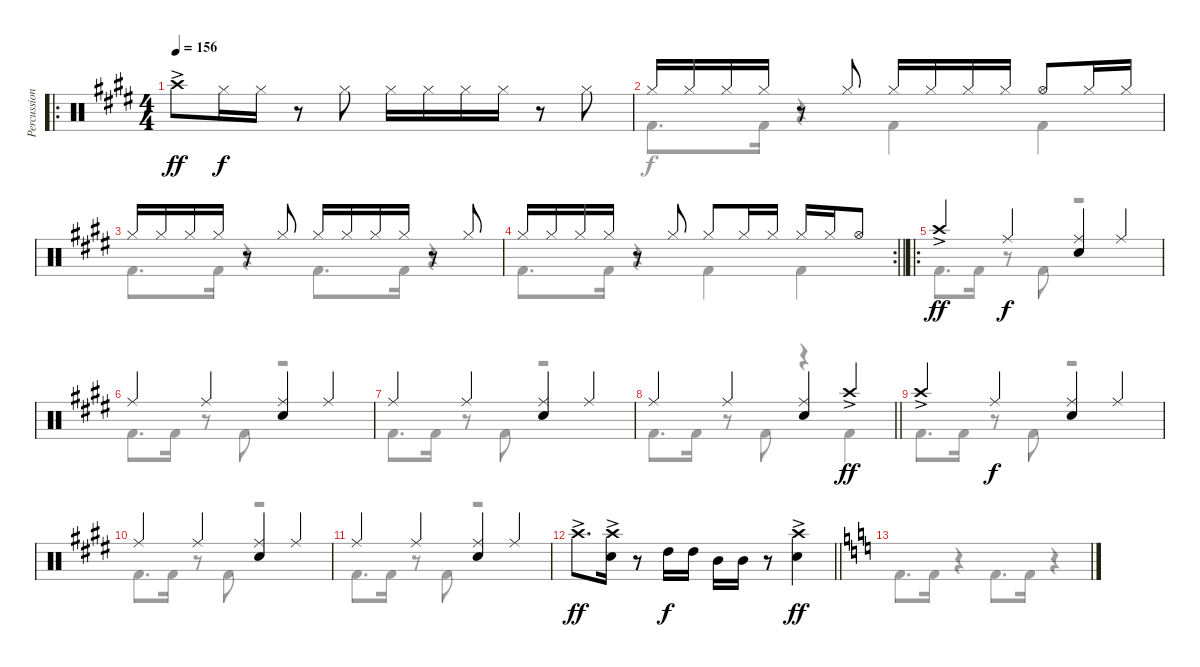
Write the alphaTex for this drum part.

\track ("Percussion" "Percussion") {instrument percussion}
\staff {score}
\articulation defaults
\voice
\ro
\ts (4 4)
\tempo 156
\clef neutral
\ks c#minor "Crash high (hit)"{ac}.8{dy ff} "Hi-Hat (closed)".16{dy f} "Hi-Hat (closed)".16
r.8 "Hi-Hat (closed)".8 "Hi-Hat (closed)".16 "Hi-Hat (closed)".16 "Hi-Hat (closed)".16 "Hi-Hat (closed)".16 r.8 "Hi-Hat (closed)".8 |
"Hi-Hat (closed)".16 "Hi-Hat (closed)".16 "Hi-Hat (closed)".16 "Hi-Hat (closed)".16 r.8 "Hi-Hat (closed)".8 "Hi-Hat (closed)".16 "Hi-Hat (closed)".16 "Hi-Hat (closed)".16 "Hi-Hat (closed)".16 "Hi-Hat (open)".8 "Hi-Hat (closed)".16 "Hi-Hat (closed)".16 |
"Hi-Hat (closed)".16 "Hi-Hat (closed)".16 "Hi-Hat (closed)".16 "Hi-Hat (closed)".16 r.8 "Hi-Hat (closed)".8 "Hi-Hat (closed)".16 "Hi-Hat (closed)".16 "Hi-Hat (closed)".16 "Hi-Hat (closed)".16 r.8 "Hi-Hat (closed)".8 |
\rc 2
\barLineRight lightlight "Hi-Hat (closed)".16 "Hi-Hat (closed)".16 "Hi-Hat (closed)".16 "Hi-Hat (closed)".16
r.8 "Hi-Hat (closed)".8 "Hi-Hat (closed)".8 "Hi-Hat (closed)".16 "Hi-Hat (closed)".16 "Hi-Hat (closed)".16 "Hi-Hat (closed)".16 "Hi-Hat (open)".8 |
\ro "Crash high (hit)"{ac}.4{dy ff} "Ride (middle)".4{dy f}
("Ride (middle)" "Snare (hit) 2").4 "Ride (middle)".4 |
"Ride (middle)".4 "Ride (middle)".4 ("Ride (middle)" "Snare (hit) 2").4 "Ride (middle)".4 |
"Ride (middle)".4 "Ride (middle)".4 ("Ride (middle)" "Snare (hit) 2").4 "Ride (middle)".4 |
\barLineRight lightlight "Ride (middle)".4 "Ride (middle)".4
("Ride (middle)" "Snare (hit) 2").4 "Crash high (hit)"{ac}.4{dy ff} |
"Crash high (hit)"{ac}.4 "Ride (middle)".4{dy f} ("Ride (middle)" "Snare (hit) 2").4 "Ride (middle)".4 |
"Ride (middle)".4 "Ride (middle)".4 ("Ride (middle)" "Snare (hit) 2").4 "Ride (middle)".4 |
"Ride (middle)".4 "Ride (middle)".4 ("Ride (middle)" "Snare (hit) 2").4 "Ride (middle)".4 |
\barLineRight lightlight "Crash high (hit)"{ac}.8{d dy ff}
("Crash high (hit)"{ac} "Snare (hit) 2").16 r.8 "High Tom (hit)".16{dy f} "High Tom (hit)".16 "Mid Tom (hit)".16 "Mid Tom (hit)".16 r.8 ("Crash high (hit)"{ac} "Snare (hit) 2").4{dy ff} |
\ks c
\voice
\clef neutral
\ottava regular
\simile none
\ks c#minor "Kick (hit) 2".8{d dy f} "Kick (hit) 2".16
r.4 "Kick (hit) 2".8{d} "Kick (hit) 2".16 r.4 |
"Kick (hit) 2".8{d} "Kick (hit) 2".16 r.4 "Kick (hit) 2".4 "Kick (hit) 2".4 |
"Kick (hit) 2".8{d} "Kick (hit) 2".16 r.4 "Kick (hit) 2".8{d} "Kick (hit) 2".16 r.4 |
\barLineRight lightlight "Kick (hit) 2".8{d} "Kick (hit) 2".16
r.4 "Kick (hit) 2".4 "Kick (hit) 2".4 |
"Kick (hit) 2".8{d} "Kick (hit) 2".16 r.8 "Kick (hit) 2".8 r.2 |
"Kick (hit) 2".8{d} "Kick (hit) 2".16 r.8 "Kick (hit) 2".8 r.2 |
"Kick (hit) 2".8{d} "Kick (hit) 2".16 r.8 "Kick (hit) 2".8 r.2 |
\barLineRight lightlight "Kick (hit) 2".8{d} "Kick (hit) 2".16
r.8 "Kick (hit) 2".8 r.4 "Kick (hit) 2".4 |
"Kick (hit) 2".8{d} "Kick (hit) 2".16 r.8 "Kick (hit) 2".8 r.2 |
"Kick (hit) 2".8{d} "Kick (hit) 2".16 r.8 "Kick (hit) 2".8 r.2 |
"Kick (hit) 2".8{d} "Kick (hit) 2".16 r.8 "Kick (hit) 2".8 r.2 |
\barLineRight lightlight
|
\ks c
